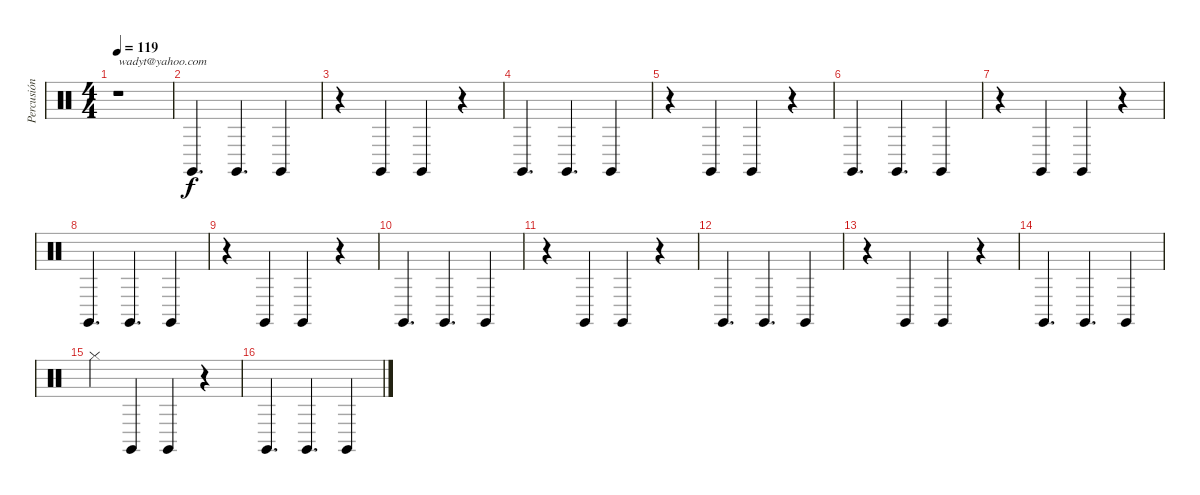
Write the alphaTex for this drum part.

\track ("Percusión" "Percusión") {instrument percussion}
\staff {score}
\articulation defaults
\ts (4 4)
\tempo 119
\clef neutral
\ks c
r.1{txt "wadyt@yahoo.com" dy f} |
"Claves (hit)".4{d} "Claves (hit)".4{d} "Claves (hit)".4 |
r.4 "Claves (hit)".4 "Claves (hit)".4 r.4 |
"Claves (hit)".4{d} "Claves (hit)".4{d} "Claves (hit)".4 |
r.4 "Claves (hit)".4 "Claves (hit)".4 r.4 |
"Claves (hit)".4{d} "Claves (hit)".4{d} "Claves (hit)".4 |
r.4 "Claves (hit)".4 "Claves (hit)".4 r.4 |
"Claves (hit)".4{d} "Claves (hit)".4{d} "Claves (hit)".4 |
r.4 "Claves (hit)".4 "Claves (hit)".4 r.4 |
"Claves (hit)".4{d} "Claves (hit)".4{d} "Claves (hit)".4 |
r.4 "Claves (hit)".4 "Claves (hit)".4 r.4 |
"Claves (hit)".4{d} "Claves (hit)".4{d} "Claves (hit)".4 |
r.4 "Claves (hit)".4 "Claves (hit)".4 r.4 |
"Claves (hit)".4{d} "Claves (hit)".4{d} "Claves (hit)".4 |
"Hi-Hat (closed)".4 "Claves (hit)".4 "Claves (hit)".4 r.4 |
"Claves (hit)".4{d} "Claves (hit)".4{d} "Claves (hit)".4
